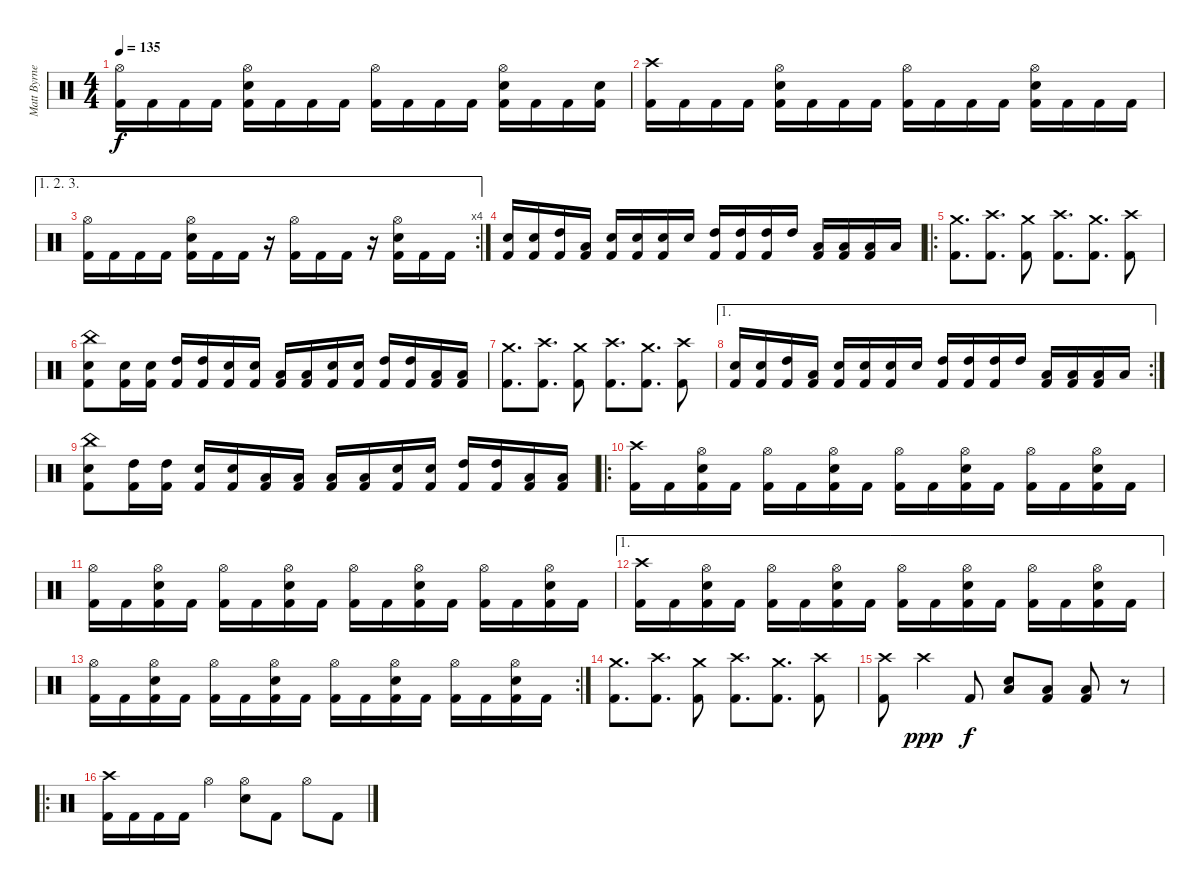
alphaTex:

\track ("Matt Byrne" "Matt Byrne") {instrument percussion}
\staff {score}
\articulation defaults
\ts (4 4)
\tempo 135
\clef neutral
\ks c
("Hi-Hat (open)" "Kick (hit) 2").16{dy f} "Kick (hit) 2".16 "Kick (hit) 2".16 "Kick (hit) 2".16 ("Hi-Hat (open)" "Electric Snare (hit)" "Kick (hit) 2").16 "Kick (hit) 2".16 "Kick (hit) 2".16 "Kick (hit) 2".16 ("Hi-Hat (open)" "Kick (hit) 2").16 "Kick (hit) 2".16 "Kick (hit) 2".16 "Kick (hit) 2".16 ("Hi-Hat (open)" "Electric Snare (hit)" "Kick (hit) 2").16 "Kick (hit) 2".16 "Kick (hit) 2".16 ("Electric Snare (hit)" "Kick (hit) 2").16 |
("Crash high (hit)" "Kick (hit) 2").16 "Kick (hit) 2".16 "Kick (hit) 2".16 "Kick (hit) 2".16 ("Hi-Hat (open)" "Electric Snare (hit)" "Kick (hit) 2").16 "Kick (hit) 2".16 "Kick (hit) 2".16 "Kick (hit) 2".16 ("Hi-Hat (open)" "Kick (hit) 2").16 "Kick (hit) 2".16 "Kick (hit) 2".16 "Kick (hit) 2".16 ("Hi-Hat (open)" "Electric Snare (hit)" "Kick (hit) 2").16 "Kick (hit) 2".16 "Kick (hit) 2".16 "Kick (hit) 2".16 |
\ae (1 2 3)
\rc 4
("Hi-Hat (open)" "Kick (hit) 2").16 "Kick (hit) 2".16 "Kick (hit) 2".16 "Kick (hit) 2".16 ("Hi-Hat (open)" "Electric Snare (hit)" "Kick (hit) 2").16 "Kick (hit) 2".16 "Kick (hit) 2".16 r.16 ("Hi-Hat (open)" "Kick (hit) 2").16 "Kick (hit) 2".16 "Kick (hit) 2".16 r.16 ("Hi-Hat (open)" "Electric Snare (hit)" "Kick (hit) 2").16 "Kick (hit) 2".16 "Kick (hit) 2".16 |
("Electric Snare (hit)" "Kick (hit) 2").16 ("Electric Snare (hit)" "Kick (hit) 2").16 ("High Tom (hit)" "Kick (hit) 2").16 ("Low Tom (hit)" "Kick (hit) 2").16 ("Electric Snare (hit)" "Kick (hit) 2").16 ("Electric Snare (hit)" "Kick (hit) 2").16 ("Electric Snare (hit)" "Kick (hit) 2").16 "Electric Snare (hit)".16 ("High Tom (hit)" "Kick (hit) 2").16 ("High Tom (hit)" "Kick (hit) 2").16 ("High Tom (hit)" "Kick (hit) 2").16 "High Tom (hit)".16 ("Low Tom (hit)" "Kick (hit) 2").16 ("Low Tom (hit)" "Kick (hit) 2").16 ("Low Tom (hit)" "Kick (hit) 2").16 "Low Tom (hit)".16 |
\ro
("Crash medium (hit)" "Kick (hit) 2").8{d} ("Crash high (hit)" "Kick (hit) 2").8{d} ("Crash medium (hit)" "Kick (hit) 2").8 ("Crash high (hit)" "Kick (hit) 2").8{d} ("Crash medium (hit)" "Kick (hit) 2").8{d} ("Crash high (hit)" "Kick (hit) 2").8 |
("China (hit)" "Electric Snare (hit)" "Kick (hit) 2").8 ("Electric Snare (hit)" "Kick (hit) 2").16 ("Electric Snare (hit)" "Kick (hit) 2").16 ("High Tom (hit)" "Kick (hit) 2").16 ("High Tom (hit)" "Kick (hit) 2").16 ("Electric Snare (hit)" "Kick (hit) 2").16 ("Electric Snare (hit)" "Kick (hit) 2").16 ("Low Tom (hit)" "Kick (hit) 2").16 ("Low Tom (hit)" "Kick (hit) 2").16 ("Electric Snare (hit)" "Kick (hit) 2").16 ("Electric Snare (hit)" "Kick (hit) 2").16 ("High Tom (hit)" "Kick (hit) 2").16 ("High Tom (hit)" "Kick (hit) 2").16 ("Low Tom (hit)" "Kick (hit) 2").16 ("Low Tom (hit)" "Kick (hit) 2").16 |
("Crash medium (hit)" "Kick (hit) 2").8{d} ("Crash high (hit)" "Kick (hit) 2").8{d} ("Crash medium (hit)" "Kick (hit) 2").8 ("Crash high (hit)" "Kick (hit) 2").8{d} ("Crash medium (hit)" "Kick (hit) 2").8{d} ("Crash high (hit)" "Kick (hit) 2").8 |
\ae 1
\rc 2
("Electric Snare (hit)" "Kick (hit) 2").16 ("Electric Snare (hit)" "Kick (hit) 2").16 ("High Tom (hit)" "Kick (hit) 2").16 ("Low Tom (hit)" "Kick (hit) 2").16 ("Electric Snare (hit)" "Kick (hit) 2").16 ("Electric Snare (hit)" "Kick (hit) 2").16 ("Electric Snare (hit)" "Kick (hit) 2").16 "Electric Snare (hit)".16 ("High Tom (hit)" "Kick (hit) 2").16 ("High Tom (hit)" "Kick (hit) 2").16 ("High Tom (hit)" "Kick (hit) 2").16 "High Tom (hit)".16 ("Low Tom (hit)" "Kick (hit) 2").16 ("Low Tom (hit)" "Kick (hit) 2").16 ("Low Tom (hit)" "Kick (hit) 2").16 "Low Tom (hit)".16 |
("China (hit)" "Electric Snare (hit)" "Kick (hit) 2").8 ("High Tom (hit)" "Kick (hit) 2").16 ("High Tom (hit)" "Kick (hit) 2").16 ("Electric Snare (hit)" "Kick (hit) 2").16 ("Electric Snare (hit)" "Kick (hit) 2").16 ("Low Tom (hit)" "Kick (hit) 2").16 ("Low Tom (hit)" "Kick (hit) 2").16 ("Low Tom (hit)" "Kick (hit) 2").16 ("Low Tom (hit)" "Kick (hit) 2").16 ("Electric Snare (hit)" "Kick (hit) 2").16 ("Electric Snare (hit)" "Kick (hit) 2").16 ("High Tom (hit)" "Kick (hit) 2").16 ("High Tom (hit)" "Kick (hit) 2").16 ("Low Tom (hit)" "Kick (hit) 2").16 ("Low Tom (hit)" "Kick (hit) 2").16 |
\ro
("Crash high (hit)" "Kick (hit) 2").16 "Kick (hit) 2".16 ("Hi-Hat (open)" "Electric Snare (hit)" "Kick (hit) 2").16 "Kick (hit) 2".16 ("Hi-Hat (open)" "Kick (hit) 2").16 "Kick (hit) 2".16 ("Hi-Hat (open)" "Electric Snare (hit)" "Kick (hit) 2").16 "Kick (hit) 2".16 ("Hi-Hat (open)" "Kick (hit) 2").16 "Kick (hit) 2".16 ("Hi-Hat (open)" "Electric Snare (hit)" "Kick (hit) 2").16 "Kick (hit) 2".16 ("Hi-Hat (open)" "Kick (hit) 2").16 "Kick (hit) 2".16 ("Hi-Hat (open)" "Electric Snare (hit)" "Kick (hit) 2").16 "Kick (hit) 2".16 |
("Hi-Hat (open)" "Kick (hit) 2").16 "Kick (hit) 2".16 ("Hi-Hat (open)" "Electric Snare (hit)" "Kick (hit) 2").16 "Kick (hit) 2".16 ("Hi-Hat (open)" "Kick (hit) 2").16 "Kick (hit) 2".16 ("Hi-Hat (open)" "Electric Snare (hit)" "Kick (hit) 2").16 "Kick (hit) 2".16 ("Hi-Hat (open)" "Kick (hit) 2").16 "Kick (hit) 2".16 ("Hi-Hat (open)" "Electric Snare (hit)" "Kick (hit) 2").16 "Kick (hit) 2".16 ("Hi-Hat (open)" "Kick (hit) 2").16 "Kick (hit) 2".16 ("Hi-Hat (open)" "Electric Snare (hit)" "Kick (hit) 2").16 "Kick (hit) 2".16 |
\ae 1
("Crash high (hit)" "Kick (hit) 2").16 "Kick (hit) 2".16 ("Hi-Hat (open)" "Electric Snare (hit)" "Kick (hit) 2").16 "Kick (hit) 2".16 ("Hi-Hat (open)" "Kick (hit) 2").16 "Kick (hit) 2".16 ("Hi-Hat (open)" "Electric Snare (hit)" "Kick (hit) 2").16 "Kick (hit) 2".16 ("Hi-Hat (open)" "Kick (hit) 2").16 "Kick (hit) 2".16 ("Hi-Hat (open)" "Electric Snare (hit)" "Kick (hit) 2").16 "Kick (hit) 2".16 ("Hi-Hat (open)" "Kick (hit) 2").16 "Kick (hit) 2".16 ("Hi-Hat (open)" "Electric Snare (hit)" "Kick (hit) 2").16 "Kick (hit) 2".16 |
\rc 2
("Hi-Hat (open)" "Kick (hit) 2").16 "Kick (hit) 2".16 ("Hi-Hat (open)" "Electric Snare (hit)" "Kick (hit) 2").16 "Kick (hit) 2".16 ("Hi-Hat (open)" "Kick (hit) 2").16 "Kick (hit) 2".16 ("Hi-Hat (open)" "Electric Snare (hit)" "Kick (hit) 2").16 "Kick (hit) 2".16 ("Hi-Hat (open)" "Kick (hit) 2").16 "Kick (hit) 2".16 ("Hi-Hat (open)" "Electric Snare (hit)" "Kick (hit) 2").16 "Kick (hit) 2".16 ("Hi-Hat (open)" "Kick (hit) 2").16 "Kick (hit) 2".16 ("Hi-Hat (open)" "Electric Snare (hit)" "Kick (hit) 2").16 "Kick (hit) 2".16 |
("Crash medium (hit)" "Kick (hit) 2").8{d} ("Crash high (hit)" "Kick (hit) 2").8{d} ("Crash medium (hit)" "Kick (hit) 2").8 ("Crash high (hit)" "Kick (hit) 2").8{d} ("Crash medium (hit)" "Kick (hit) 2").8{d} ("Crash high (hit)" "Kick (hit) 2").8 |
("Crash high (hit)" "Kick (hit) 2").8 "Crash high (hit)".4{dy ppp} "Kick (hit) 2".8{dy f} ("Low Tom (hit)" "Electric Snare (hit)").8 ("Low Tom (hit)" "Kick (hit) 2").8 ("Low Tom (hit)" "Kick (hit) 2").8 r.8 |
\ro
("Crash high (hit)" "Kick (hit) 2").16 "Kick (hit) 2".16 "Kick (hit) 2".16 "Kick (hit) 2".16 "Hi-Hat (open)".4 ("Hi-Hat (open)" "Electric Snare (hit)").8 "Kick (hit) 2".8 "Hi-Hat (open)".8 "Kick (hit) 2".8
